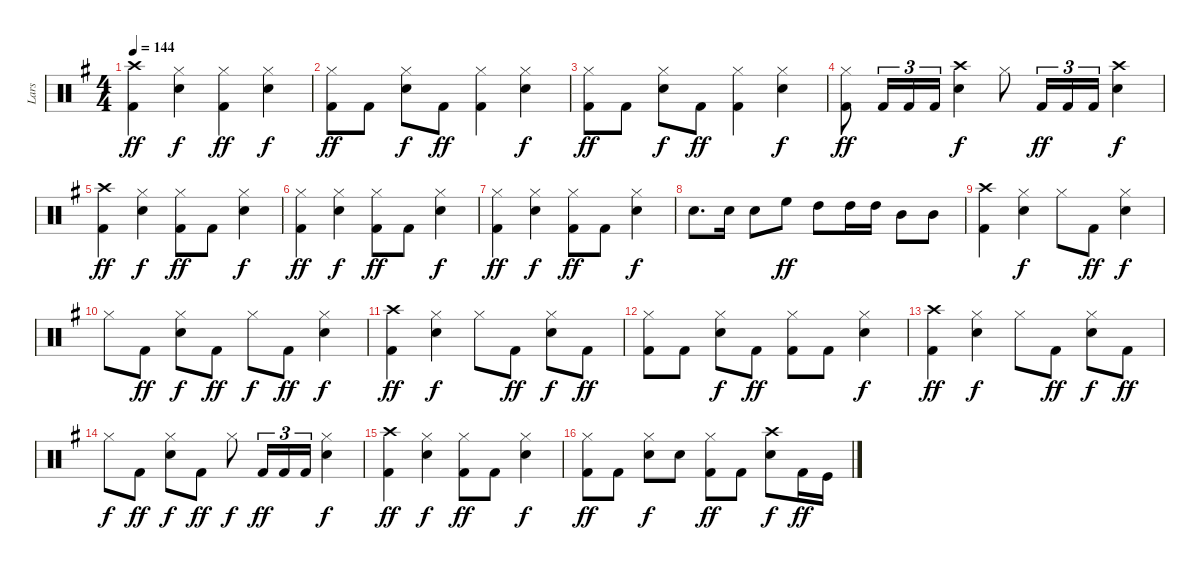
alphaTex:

\track ("Lars" "Lars") {instrument percussion}
\staff {score}
\articulation defaults
\ts (4 4)
\tempo 144
\clef neutral
\ks g
("Crash high (hit)" "Kick (hit) 2").4{dy ff} ("Hi-Hat (closed)" "Snare (hit) 2").4{dy f} ("Hi-Hat (closed)" "Kick (hit) 2").4{dy ff} ("Hi-Hat (closed)" "Snare (hit) 2").4{dy f} |
("Hi-Hat (closed)" "Kick (hit) 2").8{dy ff} "Kick (hit) 2".8 ("Hi-Hat (closed)" "Snare (hit) 2").8{dy f} "Kick (hit) 2".8{dy ff} ("Hi-Hat (closed)" "Kick (hit) 2").4 ("Hi-Hat (closed)" "Snare (hit) 2").4{dy f} |
("Hi-Hat (closed)" "Kick (hit) 2").8{dy ff} "Kick (hit) 2".8 ("Hi-Hat (closed)" "Snare (hit) 2").8{dy f} "Kick (hit) 2".8{dy ff} ("Hi-Hat (closed)" "Kick (hit) 2").4 ("Hi-Hat (closed)" "Snare (hit) 2").4{dy f} |
("Hi-Hat (closed)" "Kick (hit) 2").8{dy ff} "Kick (hit) 2".16{tu (3 2)} "Kick (hit) 2".16{tu (3 2)} "Kick (hit) 2".16{tu (3 2)} ("Crash high (hit)" "Snare (hit) 2").4{dy f} "Hi-Hat (closed)".8 "Kick (hit) 2".16{tu (3 2) dy ff} "Kick (hit) 2".16{tu (3 2)} "Kick (hit) 2".16{tu (3 2)} ("Crash high (hit)" "Snare (hit) 2").4{dy f} |
("Crash high (hit)" "Kick (hit) 2").4{dy ff} ("Hi-Hat (closed)" "Snare (hit) 2").4{dy f} ("Hi-Hat (closed)" "Kick (hit) 2").8{dy ff} "Kick (hit) 2".8 ("Hi-Hat (closed)" "Snare (hit) 2").4{dy f} |
("Hi-Hat (closed)" "Kick (hit) 2").4{dy ff} ("Hi-Hat (closed)" "Snare (hit) 2").4{dy f} ("Hi-Hat (closed)" "Kick (hit) 2").8{dy ff} "Kick (hit) 2".8 ("Hi-Hat (closed)" "Snare (hit) 2").4{dy f} |
("Hi-Hat (closed)" "Kick (hit) 2").4{dy ff} ("Hi-Hat (closed)" "Snare (hit) 2").4{dy f} ("Hi-Hat (closed)" "Kick (hit) 2").8{dy ff} "Kick (hit) 2".8 ("Hi-Hat (closed)" "Snare (hit) 2").4{dy f} |
"Snare (hit) 2".8{d} "Snare (hit) 2".16 "Snare (hit) 2".8 "High Floor Tom (hit)".8{dy ff} "High Tom (hit)".8 "High Tom (hit)".16 "High Tom (hit)".16 "Mid Tom (hit)".8 "Mid Tom (hit)".8 |
("Crash high (hit)" "Kick (hit) 2").4 ("Hi-Hat (closed)" "Snare (hit) 2").4{dy f} "Hi-Hat (closed)".8 "Kick (hit) 2".8{dy ff} ("Hi-Hat (closed)" "Snare (hit) 2").4{dy f} |
"Hi-Hat (closed)".8 "Kick (hit) 2".8{dy ff} ("Hi-Hat (closed)" "Snare (hit) 2").8{dy f} "Kick (hit) 2".8{dy ff} "Hi-Hat (closed)".8{dy f} "Kick (hit) 2".8{dy ff} ("Hi-Hat (closed)" "Snare (hit) 2").4{dy f} |
("Crash high (hit)" "Kick (hit) 2").4{dy ff} ("Hi-Hat (closed)" "Snare (hit) 2").4{dy f} "Hi-Hat (closed)".8 "Kick (hit) 2".8{dy ff} ("Hi-Hat (closed)" "Snare (hit) 2").8{dy f} "Kick (hit) 2".8{dy ff} |
("Hi-Hat (closed)" "Kick (hit) 2").8 "Kick (hit) 2".8 ("Hi-Hat (closed)" "Snare (hit) 2").8{dy f} "Kick (hit) 2".8{dy ff} ("Hi-Hat (closed)" "Kick (hit) 2").8 "Kick (hit) 2".8 ("Hi-Hat (closed)" "Snare (hit) 2").4{dy f} |
("Crash high (hit)" "Kick (hit) 2").4{dy ff} ("Hi-Hat (closed)" "Snare (hit) 2").4{dy f} "Hi-Hat (closed)".8 "Kick (hit) 2".8{dy ff} ("Hi-Hat (closed)" "Snare (hit) 2").8{dy f} "Kick (hit) 2".8{dy ff} |
"Hi-Hat (closed)".8{dy f} "Kick (hit) 2".8{dy ff} ("Hi-Hat (closed)" "Snare (hit) 2").8{dy f} "Kick (hit) 2".8{dy ff} "Hi-Hat (closed)".8{dy f} "Kick (hit) 2".16{tu (3 2) dy ff} "Kick (hit) 2".16{tu (3 2)} "Kick (hit) 2".16{tu (3 2)} ("Hi-Hat (closed)" "Snare (hit) 2").4{dy f} |
("Crash high (hit)" "Kick (hit) 2").4{dy ff} ("Hi-Hat (closed)" "Snare (hit) 2").4{dy f} ("Hi-Hat (closed)" "Kick (hit) 2").8{dy ff} "Kick (hit) 2".8 ("Hi-Hat (closed)" "Snare (hit) 2").4{dy f} |
("Hi-Hat (closed)" "Kick (hit) 2").8{dy ff} "Kick (hit) 2".8 ("Hi-Hat (closed)" "Snare (hit) 2").8{dy f} "Snare (hit) 2".8 ("Hi-Hat (closed)" "Kick (hit) 2").8{dy ff} "Kick (hit) 2".8 ("Crash high (hit)" "Snare (hit) 2").8{dy f} "Kick (hit) 2".16{dy ff} "Kick (hit)".16
